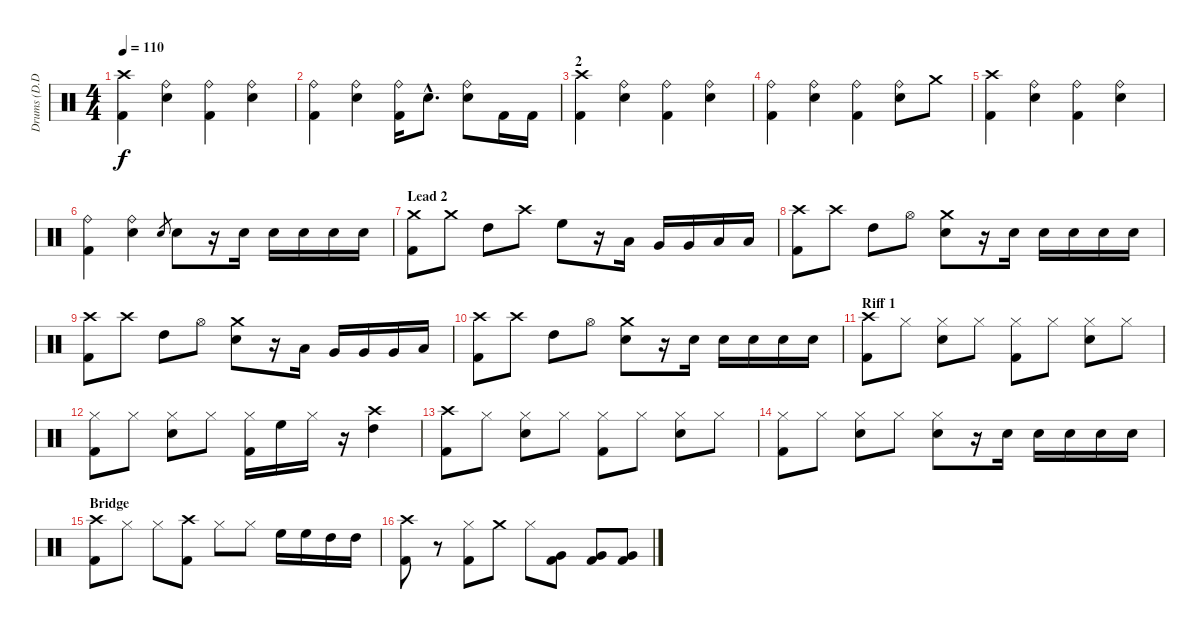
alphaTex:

\track ("Drums (D.D. Bucco)" "Drums (D.D") {instrument percussion}
\staff {score}
\articulation defaults
\ts (4 4)
\tempo 110
\clef neutral
\ks c
("Crash high (hit)" "Kick (hit) 2").4{dy f} ("Ride (bell)" "Snare (hit) 2").4 ("Ride (bell)" "Kick (hit) 2").4 ("Ride (bell)" "Snare (hit) 2").4 |
("Ride (bell)" "Kick (hit) 2").4 ("Ride (bell)" "Snare (hit) 2").4 ("Ride (bell)" "Kick (hit) 2").16 "Snare (hit) 2"{hac}.8{d} ("Ride (bell)" "Snare (hit) 2").8 "Kick (hit) 2".16 "Kick (hit) 2".16 |
\section ("" "2")
("Crash high (hit)" "Kick (hit) 2").4 ("Ride (bell)" "Snare (hit) 2").4 ("Ride (bell)" "Kick (hit) 2").4 ("Ride (bell)" "Snare (hit) 2").4 |
("Ride (bell)" "Kick (hit) 2").4 ("Ride (bell)" "Snare (hit) 2").4 ("Ride (bell)" "Kick (hit) 2").4 ("Ride (bell)" "Snare (hit) 2").8 "Crash medium (hit)".8 |
("Crash high (hit)" "Kick (hit) 2").4 ("Ride (bell)" "Snare (hit) 2").4 ("Ride (bell)" "Kick (hit) 2").4 ("Ride (bell)" "Snare (hit) 2").4 |
("Ride (bell)" "Kick (hit) 2").4 ("Ride (bell)" "Snare (hit) 2").4 "Snare (hit) 2".8{gr} "Snare (hit) 2".8 r.16 "Snare (hit) 2".16 "Snare (hit) 2".16 "Snare (hit) 2".16 "Snare (hit) 2".16 "Snare (hit) 2".16 |
\section ("" "Lead 2")
("Crash medium (hit)" "Kick (hit) 2").8 "Crash medium (hit)".8 "High Tom (hit)".8 "Crash high (hit)".8 "High Floor Tom (hit)".8 r.16 "Low Tom (hit)".16 "Very Low Tom (hit)".16 "Very Low Tom (hit)".16 "Low Floor Tom (hit)".16 "Low Floor Tom (hit)".16 |
("Crash high (hit)" "Kick (hit) 2").8 "Crash high (hit)".8 "High Tom (hit)".8 "Hi-Hat (open)".8 ("Crash medium (hit)" "Snare (hit) 2").8 r.16 "Snare (hit) 2".16 "Snare (hit) 2".16 "Snare (hit) 2".16 "Snare (hit) 2".16 "Snare (hit) 2".16 |
("Crash high (hit)" "Kick (hit) 2").8 "Crash high (hit)".8 "High Tom (hit)".8 "Hi-Hat (open)".8 ("Crash medium (hit)" "Snare (hit) 2").8 r.16 "Low Tom (hit)".16 "Very Low Tom (hit)".16 "Very Low Tom (hit)".16 "Very Low Tom (hit)".16 "Low Floor Tom (hit)".16 |
("Crash high (hit)" "Kick (hit) 2").8 "Crash high (hit)".8 "High Tom (hit)".8 "Hi-Hat (open)".8 ("Crash medium (hit)" "Snare (hit) 2").8 r.16 "Snare (hit) 2".16 "Snare (hit) 2".16 "Snare (hit) 2".16 "Snare (hit) 2".16 "Snare (hit) 2".16 |
\section ("" "Riff 1")
("Crash high (hit)" "Kick (hit) 2").8 "Hi-Hat (closed)".8 ("Hi-Hat (closed)" "Snare (hit) 2").8 "Hi-Hat (closed)".8 ("Hi-Hat (closed)" "Kick (hit) 2").8 "Hi-Hat (closed)".8 ("Hi-Hat (closed)" "Snare (hit) 2").8 "Hi-Hat (closed)".8 |
("Hi-Hat (closed)" "Kick (hit) 2").8 "Hi-Hat (closed)".8 ("Hi-Hat (closed)" "Snare (hit) 2").8 "Hi-Hat (closed)".8 ("Hi-Hat (closed)" "Kick (hit) 2").16 "High Floor Tom (hit)".16 "Hi-Hat (closed)".16 r.16 ("Crash high (hit)" "High Tom (hit)").4 |
("Crash high (hit)" "Kick (hit) 2").8 "Hi-Hat (closed)".8 ("Hi-Hat (closed)" "Snare (hit) 2").8 "Hi-Hat (closed)".8 ("Hi-Hat (closed)" "Kick (hit) 2").8 "Hi-Hat (closed)".8 ("Hi-Hat (closed)" "Snare (hit) 2").8 "Hi-Hat (closed)".8 |
("Hi-Hat (closed)" "Kick (hit) 2").8 "Hi-Hat (closed)".8 ("Hi-Hat (closed)" "Snare (hit) 2").8 "Hi-Hat (closed)".8 ("Hi-Hat (closed)" "Snare (hit) 2").8 r.16 "Snare (hit) 2".16 "Snare (hit) 2".16 "Snare (hit) 2".16 "Snare (hit) 2".16 "Snare (hit) 2".16 |
\section ("" "Bridge")
("Crash high (hit)" "Kick (hit) 2").8 "Hi-Hat (closed)".8 "Hi-Hat (closed)".8 ("Crash high (hit)" "Kick (hit) 2").8 "Hi-Hat (closed)".8 "Hi-Hat (closed)".8 "High Floor Tom (hit)".16 "High Floor Tom (hit)".16 "High Tom (hit)".16 "High Tom (hit)".16 |
("Crash high (hit)" "Kick (hit) 2").8 r.8 ("Hi-Hat (closed)" "Kick (hit) 2").8 "Crash medium (hit)".8 "Hi-Hat (closed)".8 ("Very Low Tom (hit)" "Kick (hit) 2").8 ("Very Low Tom (hit)" "Kick (hit) 2").8 ("Very Low Tom (hit)" "Kick (hit) 2").8
